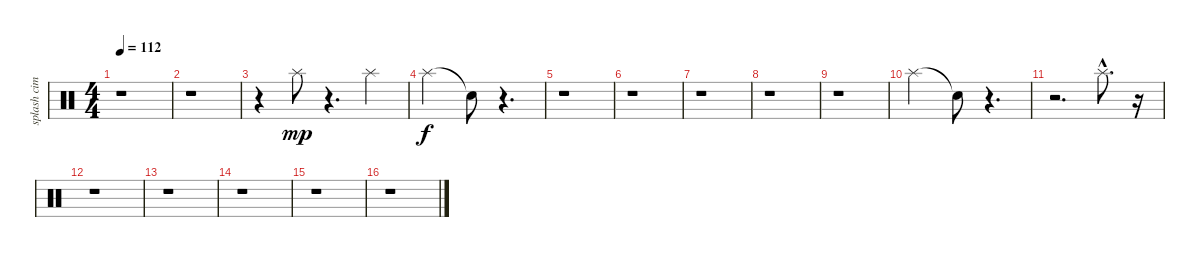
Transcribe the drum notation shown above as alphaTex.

\track ("splash cimbal" "splash cim") {instrument percussion}
\staff {score}
\articulation defaults
\ts (4 4)
\tempo 112
\clef neutral
\ks c
r.1{dy f} |
r.1 |
r.4 "Splash (hit)".8{dy mp} r.4{d} "Splash (hit)".4 |
"Splash (hit)".2{dy f} "Snare (hit)"{t}.8 r.4{d} |
r.1 |
r.1 |
r.1 |
r.1 |
r.1 |
"Splash (hit)".2 "Snare (hit)"{t}.8 r.4{d} |
r.2{d} "Splash (hit)"{hac}.8{d} r.16 |
r.1 |
r.1 |
r.1 |
r.1 |
r.1
